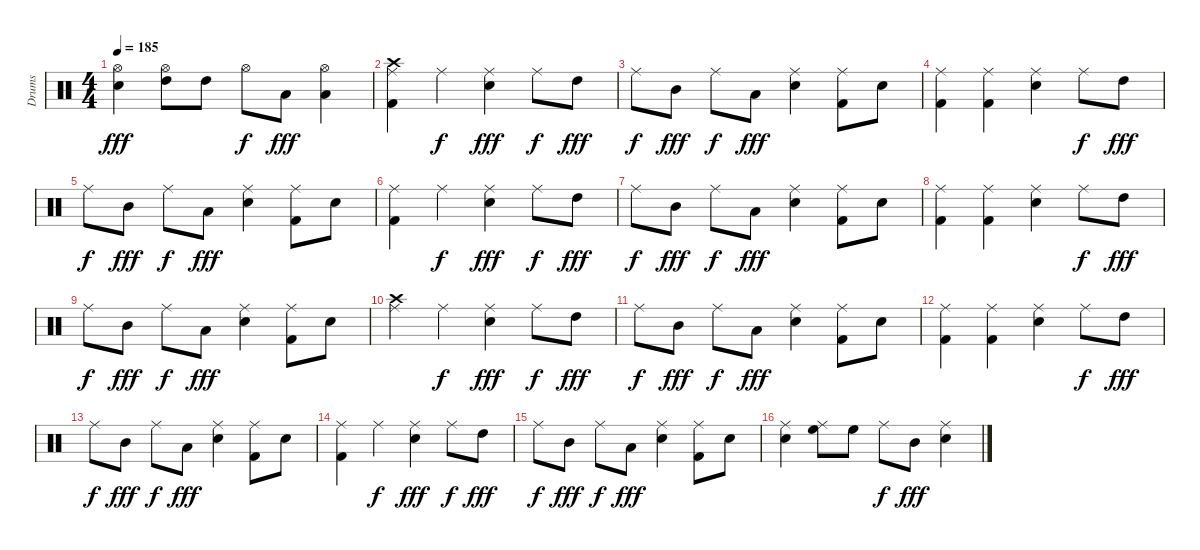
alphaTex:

\track ("Drums" "Drums") {instrument percussion}
\staff {score}
\articulation defaults
\ts (4 4)
\tempo 185
\clef neutral
\ks c
("Snare (hit) 2" "Hi-Hat (open)").4{dy fff} ("High Tom (hit)" "Hi-Hat (open)").8 "High Tom (hit)".8 "Hi-Hat (open)".8{dy f} "Low Tom (hit)".8{dy fff} ("Low Tom (hit)" "Hi-Hat (open)").4 |
("Crash high (hit)" "Kick (hit) 2" "Ride (middle)").4 "Ride (middle)".4{dy f} ("Snare (hit) 2" "Ride (middle)").4{dy fff} "Ride (middle)".8{dy f} "High Tom (hit)".8{dy fff} |
"Ride (middle)".8{dy f} "Mid Tom (hit)".8{dy fff} "Ride (middle)".8{dy f} "Low Tom (hit)".8{dy fff} ("Snare (hit) 2" "Ride (middle)").4 ("Kick (hit) 2" "Ride (middle)").8 "Snare (hit) 2".8 |
("Kick (hit) 2" "Ride (middle)").4 ("Kick (hit) 2" "Ride (middle)").4 ("Snare (hit) 2" "Ride (middle)").4 "Ride (middle)".8{dy f} "High Tom (hit)".8{dy fff} |
"Ride (middle)".8{dy f} "Mid Tom (hit)".8{dy fff} "Ride (middle)".8{dy f} "Low Tom (hit)".8{dy fff} ("Snare (hit) 2" "Ride (middle)").4 ("Kick (hit) 2" "Ride (middle)").8 "Snare (hit) 2".8 |
("Kick (hit) 2" "Ride (middle)").4 "Ride (middle)".4{dy f} ("Snare (hit) 2" "Ride (middle)").4{dy fff} "Ride (middle)".8{dy f} "High Tom (hit)".8{dy fff} |
"Ride (middle)".8{dy f} "Mid Tom (hit)".8{dy fff} "Ride (middle)".8{dy f} "Low Tom (hit)".8{dy fff} ("Snare (hit) 2" "Ride (middle)").4 ("Kick (hit) 2" "Ride (middle)").8 "Snare (hit) 2".8 |
("Kick (hit) 2" "Ride (middle)").4 ("Kick (hit) 2" "Ride (middle)").4 ("Snare (hit) 2" "Ride (middle)").4 "Ride (middle)".8{dy f} "High Tom (hit)".8{dy fff} |
"Ride (middle)".8{dy f} "Mid Tom (hit)".8{dy fff} "Ride (middle)".8{dy f} "Low Tom (hit)".8{dy fff} ("Snare (hit) 2" "Ride (middle)").4 ("Kick (hit) 2" "Ride (middle)").8 "Snare (hit) 2".8 |
("Crash high (hit)" "Ride (middle)").4 "Ride (middle)".4{dy f} ("Snare (hit) 2" "Ride (middle)").4{dy fff} "Ride (middle)".8{dy f} "High Tom (hit)".8{dy fff} |
"Ride (middle)".8{dy f} "Mid Tom (hit)".8{dy fff} "Ride (middle)".8{dy f} "Low Tom (hit)".8{dy fff} ("Snare (hit) 2" "Ride (middle)").4 ("Kick (hit) 2" "Ride (middle)").8 "Snare (hit) 2".8 |
("Kick (hit) 2" "Ride (middle)").4 ("Kick (hit) 2" "Ride (middle)").4 ("Snare (hit) 2" "Ride (middle)").4 "Ride (middle)".8{dy f} "High Tom (hit)".8{dy fff} |
"Ride (middle)".8{dy f} "Mid Tom (hit)".8{dy fff} "Ride (middle)".8{dy f} "Low Tom (hit)".8{dy fff} ("Snare (hit) 2" "Ride (middle)").4 ("Kick (hit) 2" "Ride (middle)").8 "Snare (hit) 2".8 |
("Kick (hit) 2" "Ride (middle)").4 "Ride (middle)".4{dy f} ("Snare (hit) 2" "Ride (middle)").4{dy fff} "Ride (middle)".8{dy f} "High Tom (hit)".8{dy fff} |
"Ride (middle)".8{dy f} "Mid Tom (hit)".8{dy fff} "Ride (middle)".8{dy f} "Low Tom (hit)".8{dy fff} ("Snare (hit) 2" "Ride (middle)").4 ("Kick (hit) 2" "Ride (middle)").8 "Snare (hit) 2".8 |
("Snare (hit) 2" "Ride (middle)").4 ("High Floor Tom (hit)" "Ride (middle)").8 "High Floor Tom (hit)".8 "Ride (middle)".8{dy f} "Mid Tom (hit)".8{dy fff} ("Snare (hit) 2" "Ride (middle)").4
